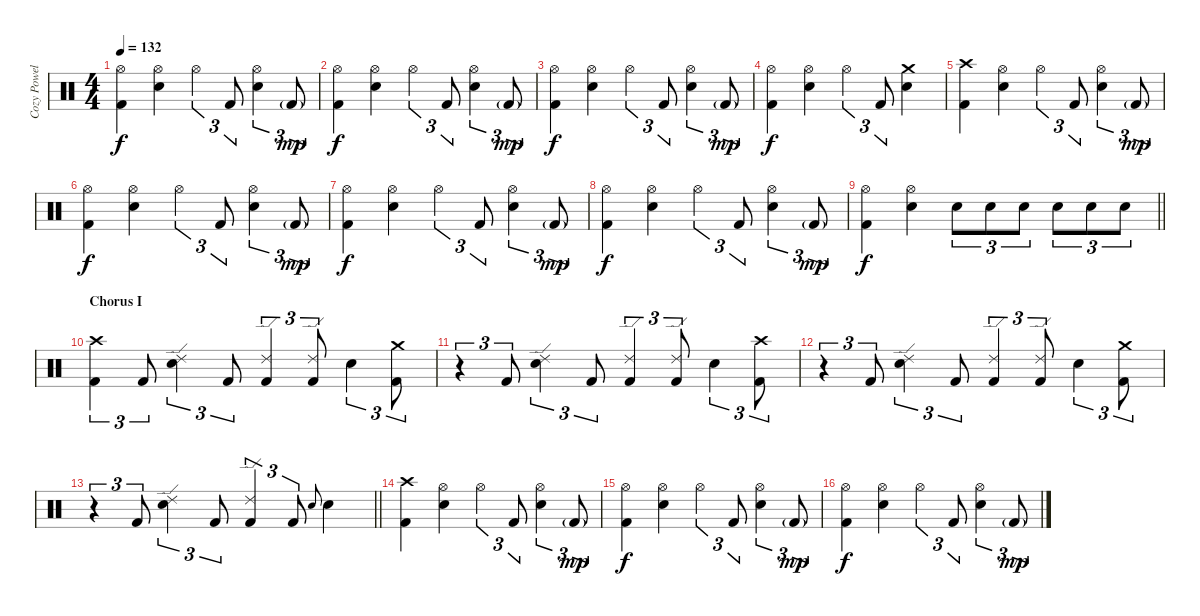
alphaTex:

\track ("Cozy Powell" "Cozy Powel") {instrument percussion}
\staff {score}
\articulation defaults
\ts (4 4)
\tempo 132
\clef neutral
\ks c
("Hi-Hat (open)" "Kick (hit) 2").4{dy f} ("Hi-Hat (open)" "Snare (hit) 2").4 "Hi-Hat (open)".4{tu (3 2)} "Kick (hit) 2".8{tu (3 2)} ("Hi-Hat (open)" "Snare (hit) 2").4{tu (3 2)} "Kick (hit) 2"{g}.8{tu (3 2) dy mp} |
("Hi-Hat (open)" "Kick (hit) 2").4{dy f} ("Hi-Hat (open)" "Snare (hit) 2").4 "Hi-Hat (open)".4{tu (3 2)} "Kick (hit) 2".8{tu (3 2)} ("Hi-Hat (open)" "Snare (hit) 2").4{tu (3 2)} "Kick (hit) 2"{g}.8{tu (3 2) dy mp} |
("Hi-Hat (open)" "Kick (hit) 2").4{dy f} ("Hi-Hat (open)" "Snare (hit) 2").4 "Hi-Hat (open)".4{tu (3 2)} "Kick (hit) 2".8{tu (3 2)} ("Hi-Hat (open)" "Snare (hit) 2").4{tu (3 2)} "Kick (hit) 2"{g}.8{tu (3 2) dy mp} |
("Hi-Hat (open)" "Kick (hit) 2").4{dy f} ("Hi-Hat (open)" "Snare (hit) 2").4 "Hi-Hat (open)".4{tu (3 2)} "Kick (hit) 2".8{tu (3 2)} ("Crash medium (hit)" "Snare (hit) 2").4 |
("Crash high (hit)" "Kick (hit) 2").4 ("Hi-Hat (open)" "Snare (hit) 2").4 "Hi-Hat (open)".4{tu (3 2)} "Kick (hit) 2".8{tu (3 2)} ("Hi-Hat (open)" "Snare (hit) 2").4{tu (3 2)} "Kick (hit) 2"{g}.8{tu (3 2) dy mp} |
("Hi-Hat (open)" "Kick (hit) 2").4{dy f} ("Hi-Hat (open)" "Snare (hit) 2").4 "Hi-Hat (open)".4{tu (3 2)} "Kick (hit) 2".8{tu (3 2)} ("Hi-Hat (open)" "Snare (hit) 2").4{tu (3 2)} "Kick (hit) 2"{g}.8{tu (3 2) dy mp} |
("Hi-Hat (open)" "Kick (hit) 2").4{dy f} ("Hi-Hat (open)" "Snare (hit) 2").4 "Hi-Hat (open)".4{tu (3 2)} "Kick (hit) 2".8{tu (3 2)} ("Hi-Hat (open)" "Snare (hit) 2").4{tu (3 2)} "Kick (hit) 2"{g}.8{tu (3 2) dy mp} |
("Hi-Hat (open)" "Kick (hit) 2").4{dy f} ("Hi-Hat (open)" "Snare (hit) 2").4 "Hi-Hat (open)".4{tu (3 2)} "Kick (hit) 2".8{tu (3 2)} ("Hi-Hat (open)" "Snare (hit) 2").4{tu (3 2)} "Kick (hit) 2"{g}.8{tu (3 2) dy mp} |
\barLineRight lightlight
("Hi-Hat (open)" "Kick (hit) 2").4{dy f} ("Hi-Hat (open)" "Snare (hit) 2").4 "Snare (hit) 2".8{tu (3 2)} "Snare (hit) 2".8{tu (3 2)} "Snare (hit) 2".8{tu (3 2)} "Snare (hit) 2".8{tu (3 2)} "Snare (hit) 2".8{tu (3 2)} "Snare (hit) 2".8{tu (3 2)} |
\section ("" "Chorus I")
("Crash high (hit)" "Kick (hit) 2").4{tu (3 2)} "Kick (hit) 2".8{tu (3 2)} ("Ride (edge) 2" "Snare (hit) 2").4{tu (3 2)} "Kick (hit) 2".8{tu (3 2)} ("Ride (edge) 2" "Kick (hit) 2").4{tu (3 2)} ("Ride (edge) 2" "Kick (hit) 2").8{tu (3 2)} "Snare (hit) 2".4{tu (3 2)} ("Crash medium (hit)" "Kick (hit) 2").8{tu (3 2)} |
r.4{tu (3 2)} "Kick (hit) 2".8{tu (3 2)} ("Ride (edge) 2" "Snare (hit) 2").4{tu (3 2)} "Kick (hit) 2".8{tu (3 2)} ("Ride (edge) 2" "Kick (hit) 2").4{tu (3 2)} ("Ride (edge) 2" "Kick (hit) 2").8{tu (3 2)} "Snare (hit) 2".4{tu (3 2)} ("Crash high (hit)" "Kick (hit) 2").8{tu (3 2)} |
r.4{tu (3 2)} "Kick (hit) 2".8{tu (3 2)} ("Ride (edge) 2" "Snare (hit) 2").4{tu (3 2)} "Kick (hit) 2".8{tu (3 2)} ("Ride (edge) 2" "Kick (hit) 2").4{tu (3 2)} ("Ride (edge) 2" "Kick (hit) 2").8{tu (3 2)} "Snare (hit) 2".4{tu (3 2)} ("Crash medium (hit)" "Kick (hit) 2").8{tu (3 2)} |
\barLineRight lightlight
r.4{tu (3 2)} "Kick (hit) 2".8{tu (3 2)} ("Ride (edge) 2" "Snare (hit) 2").4{tu (3 2)} "Kick (hit) 2".8{tu (3 2)} ("Ride (edge) 2" "Kick (hit) 2").4{tu (3 2)} "Kick (hit) 2".8{tu (3 2)} "Snare (hit) 2".8{gr onbeat} "Snare (hit) 2".4 |
\section ("" "")
("Crash high (hit)" "Kick (hit) 2").4 ("Hi-Hat (open)" "Snare (hit) 2").4 "Hi-Hat (open)".4{tu (3 2)} "Kick (hit) 2".8{tu (3 2)} ("Hi-Hat (open)" "Snare (hit) 2").4{tu (3 2)} "Kick (hit) 2"{g}.8{tu (3 2) dy mp} |
("Hi-Hat (open)" "Kick (hit) 2").4{dy f} ("Hi-Hat (open)" "Snare (hit) 2").4 "Hi-Hat (open)".4{tu (3 2)} "Kick (hit) 2".8{tu (3 2)} ("Hi-Hat (open)" "Snare (hit) 2").4{tu (3 2)} "Kick (hit) 2"{g}.8{tu (3 2) dy mp} |
("Hi-Hat (open)" "Kick (hit) 2").4{dy f} ("Hi-Hat (open)" "Snare (hit) 2").4 "Hi-Hat (open)".4{tu (3 2)} "Kick (hit) 2".8{tu (3 2)} ("Hi-Hat (open)" "Snare (hit) 2").4{tu (3 2)} "Kick (hit) 2"{g}.8{tu (3 2) dy mp}
